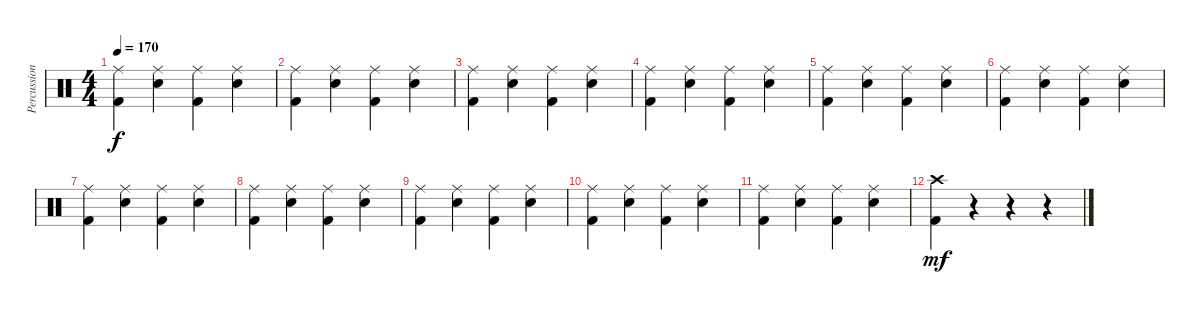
\track ("Percussion" "Percussion") {instrument percussion}
\staff {score}
\articulation defaults
\ts (4 4)
\tempo 170
\clef neutral
\ks c
("Ride (middle)" "Kick (hit) 2").4{dy f} ("Ride (middle)" "Electric Snare (hit)").4 ("Ride (middle)" "Kick (hit) 2").4 ("Ride (middle)" "Electric Snare (hit)").4 |
("Ride (middle)" "Kick (hit) 2").4 ("Ride (middle)" "Electric Snare (hit)").4 ("Ride (middle)" "Kick (hit) 2").4 ("Ride (middle)" "Electric Snare (hit)").4 |
("Ride (middle)" "Kick (hit) 2").4 ("Ride (middle)" "Electric Snare (hit)").4 ("Ride (middle)" "Kick (hit) 2").4 ("Ride (middle)" "Electric Snare (hit)").4 |
("Ride (middle)" "Kick (hit) 2").4 ("Ride (middle)" "Electric Snare (hit)").4 ("Ride (middle)" "Kick (hit) 2").4 ("Ride (middle)" "Electric Snare (hit)").4 |
("Ride (middle)" "Kick (hit) 2").4 ("Ride (middle)" "Electric Snare (hit)").4 ("Ride (middle)" "Kick (hit) 2").4 ("Ride (middle)" "Electric Snare (hit)").4 |
("Ride (middle)" "Kick (hit) 2").4 ("Ride (middle)" "Electric Snare (hit)").4 ("Ride (middle)" "Kick (hit) 2").4 ("Ride (middle)" "Electric Snare (hit)").4 |
("Ride (middle)" "Kick (hit) 2").4 ("Ride (middle)" "Electric Snare (hit)").4 ("Ride (middle)" "Kick (hit) 2").4 ("Ride (middle)" "Electric Snare (hit)").4 |
("Ride (middle)" "Kick (hit) 2").4 ("Ride (middle)" "Electric Snare (hit)").4 ("Ride (middle)" "Kick (hit) 2").4 ("Ride (middle)" "Electric Snare (hit)").4 |
("Ride (middle)" "Kick (hit) 2").4 ("Ride (middle)" "Electric Snare (hit)").4 ("Ride (middle)" "Kick (hit) 2").4 ("Ride (middle)" "Electric Snare (hit)").4 |
("Ride (middle)" "Kick (hit) 2").4 ("Ride (middle)" "Electric Snare (hit)").4 ("Ride (middle)" "Kick (hit) 2").4 ("Ride (middle)" "Electric Snare (hit)").4 |
("Ride (middle)" "Kick (hit) 2").4 ("Ride (middle)" "Electric Snare (hit)").4 ("Ride (middle)" "Kick (hit) 2").4 ("Ride (middle)" "Electric Snare (hit)").4 |
("Crash high (hit)" "Kick (hit) 2").4{dy mf} r.4 r.4 r.4
